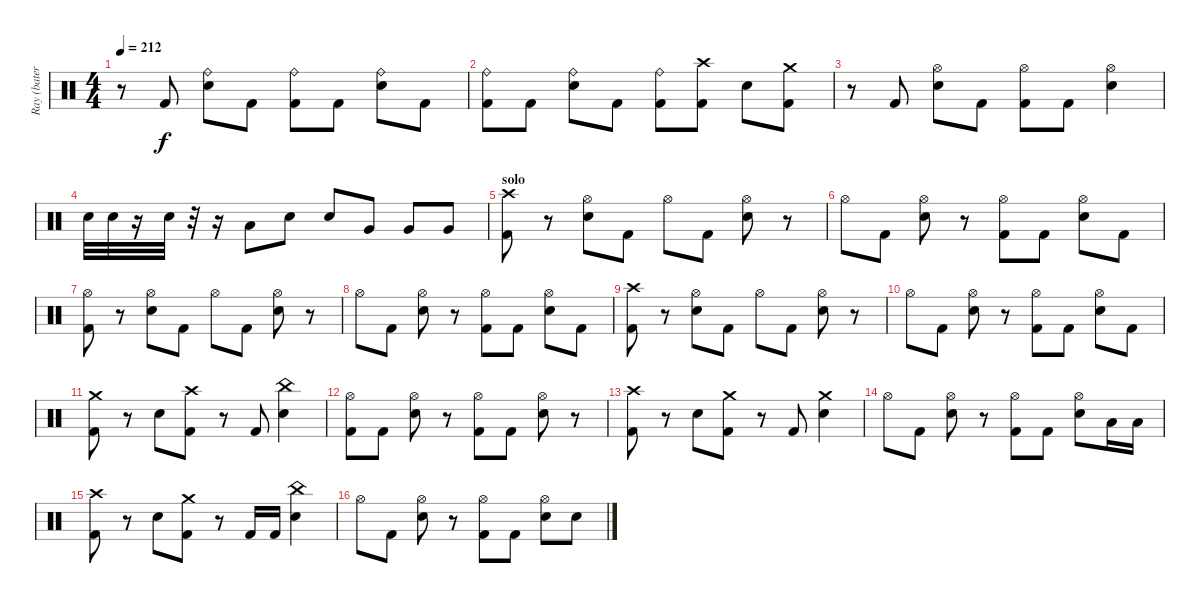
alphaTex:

\track ("Ray (batería)" "Ray (bater") {instrument percussion}
\staff {score}
\articulation defaults
\ts (4 4)
\tempo 212
\clef neutral
\ks c
r.8{dy f} "Kick (hit) 2".8 ("Ride (bell)" "Snare (hit) 2").8 "Kick (hit) 2".8 ("Ride (bell)" "Kick (hit) 2").8 "Kick (hit) 2".8 ("Ride (bell)" "Snare (hit) 2").8 "Kick (hit) 2".8 |
("Ride (bell)" "Kick (hit) 2").8 "Kick (hit) 2".8 ("Ride (bell)" "Snare (hit) 2").8 "Kick (hit) 2".8 ("Ride (bell)" "Kick (hit) 2").8 ("Crash high (hit)" "Kick (hit) 2").8 "Snare (hit) 2".8 ("Crash medium (hit)" "Kick (hit) 2").8 |
r.8 "Kick (hit) 2".8 ("Hi-Hat (open)" "Snare (hit) 2").8 "Kick (hit) 2".8 ("Hi-Hat (open)" "Kick (hit) 2").8 "Kick (hit) 2".8 ("Hi-Hat (open)" "Snare (hit) 2").4 |
"Snare (hit) 2".32 "Snare (hit) 2".32 r.16 "Snare (hit) 2".32 r.32 r.16 "Low Tom (hit)".8 "Snare (hit) 2".8 "Snare (hit) 2".8 "Very Low Tom (hit)".8 "Very Low Tom (hit)".8 "Very Low Tom (hit)".8 |
\section ("" "solo")
("Crash high (hit)" "Kick (hit) 2").8 r.8 ("Hi-Hat (open)" "Snare (hit) 2").8 "Kick (hit) 2".8 "Hi-Hat (open)".8 "Kick (hit) 2".8 ("Hi-Hat (open)" "Snare (hit) 2").8 r.8 |
"Hi-Hat (open)".8 "Kick (hit) 2".8 ("Hi-Hat (open)" "Snare (hit) 2").8 r.8 ("Hi-Hat (open)" "Kick (hit) 2").8 "Kick (hit) 2".8 ("Hi-Hat (open)" "Snare (hit) 2").8 "Kick (hit) 2".8 |
("Hi-Hat (open)" "Kick (hit) 2").8 r.8 ("Hi-Hat (open)" "Snare (hit) 2").8 "Kick (hit) 2".8 "Hi-Hat (open)".8 "Kick (hit) 2".8 ("Hi-Hat (open)" "Snare (hit) 2").8 r.8 |
"Hi-Hat (open)".8 "Kick (hit) 2".8 ("Hi-Hat (open)" "Snare (hit) 2").8 r.8 ("Hi-Hat (open)" "Kick (hit) 2").8 "Kick (hit) 2".8 ("Hi-Hat (open)" "Snare (hit) 2").8 "Kick (hit) 2".8 |
("Crash high (hit)" "Kick (hit) 2").8 r.8 ("Hi-Hat (open)" "Snare (hit) 2").8 "Kick (hit) 2".8 "Hi-Hat (open)".8 "Kick (hit) 2".8 ("Hi-Hat (open)" "Snare (hit) 2").8 r.8 |
"Hi-Hat (open)".8 "Kick (hit) 2".8 ("Hi-Hat (open)" "Snare (hit) 2").8 r.8 ("Hi-Hat (open)" "Kick (hit) 2").8 "Kick (hit) 2".8 ("Hi-Hat (open)" "Snare (hit) 2").8 "Kick (hit) 2".8 |
("Crash medium (hit)" "Kick (hit) 2").8 r.8 "Snare (hit) 2".8 ("Crash high (hit)" "Kick (hit) 2").8 r.8 "Kick (hit) 2".8 ("China (hit)" "Snare (hit) 2").4 |
("Hi-Hat (open)" "Kick (hit) 2").8 "Kick (hit) 2".8 ("Hi-Hat (open)" "Snare (hit) 2").8 r.8 ("Hi-Hat (open)" "Kick (hit) 2").8 "Kick (hit) 2".8 ("Hi-Hat (open)" "Snare (hit) 2").8 r.8 |
("Crash high (hit)" "Kick (hit) 2").8 r.8 "Snare (hit) 2".8 ("Crash medium (hit)" "Kick (hit) 2").8 r.8 "Kick (hit) 2".8 ("Crash medium (hit)" "Snare (hit) 2").4 |
"Hi-Hat (open)".8 "Kick (hit) 2".8 ("Hi-Hat (open)" "Snare (hit) 2").8 r.8 ("Hi-Hat (open)" "Kick (hit) 2").8 "Kick (hit) 2".8 ("Hi-Hat (open)" "Snare (hit) 2").8 "Low Tom (hit)".16 "Low Tom (hit)".16 |
("Crash high (hit)" "Kick (hit) 2").8 r.8 "Snare (hit) 2".8 ("Crash medium (hit)" "Kick (hit) 2").8 r.8 "Kick (hit) 2".16 "Kick (hit) 2".16 ("China (hit)" "Snare (hit) 2").4 |
"Hi-Hat (open)".8 "Kick (hit) 2".8 ("Hi-Hat (open)" "Snare (hit) 2").8 r.8 ("Hi-Hat (open)" "Kick (hit) 2").8 "Kick (hit) 2".8 ("Hi-Hat (open)" "Snare (hit) 2").8 "Snare (hit) 2".8
